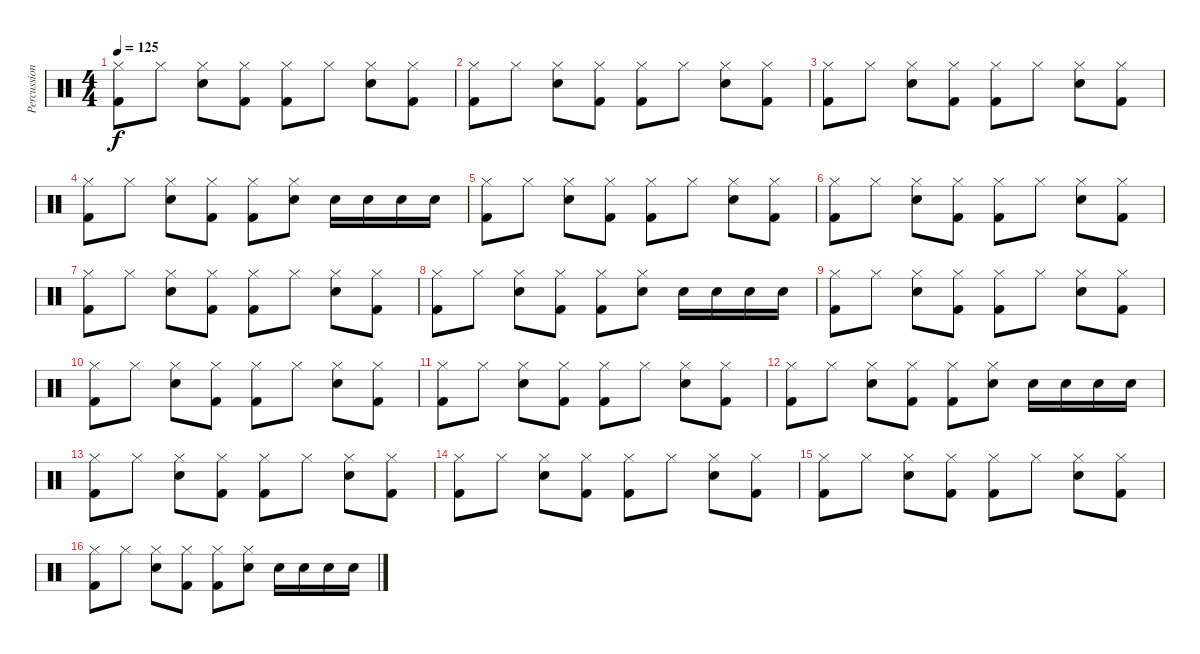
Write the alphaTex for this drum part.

\track ("Percussion" "Percussion") {instrument percussion}
\staff {score}
\articulation defaults
\ts (4 4)
\tempo 125
\clef neutral
\ks c
("Kick (hit) 2" "Hi-Hat (closed)").8{dy f} "Hi-Hat (closed)".8 ("Snare (hit) 2" "Hi-Hat (closed)").8 ("Kick (hit) 2" "Hi-Hat (closed)").8 ("Kick (hit) 2" "Hi-Hat (closed)").8 "Hi-Hat (closed)".8 ("Snare (hit) 2" "Hi-Hat (closed)").8 ("Kick (hit) 2" "Hi-Hat (closed)").8 |
("Kick (hit) 2" "Hi-Hat (closed)").8 "Hi-Hat (closed)".8 ("Snare (hit) 2" "Hi-Hat (closed)").8 ("Kick (hit) 2" "Hi-Hat (closed)").8 ("Kick (hit) 2" "Hi-Hat (closed)").8 "Hi-Hat (closed)".8 ("Snare (hit) 2" "Hi-Hat (closed)").8 ("Kick (hit) 2" "Hi-Hat (closed)").8 |
("Kick (hit) 2" "Hi-Hat (closed)").8 "Hi-Hat (closed)".8 ("Snare (hit) 2" "Hi-Hat (closed)").8 ("Kick (hit) 2" "Hi-Hat (closed)").8 ("Kick (hit) 2" "Hi-Hat (closed)").8 "Hi-Hat (closed)".8 ("Snare (hit) 2" "Hi-Hat (closed)").8 ("Kick (hit) 2" "Hi-Hat (closed)").8 |
("Kick (hit) 2" "Hi-Hat (closed)").8 "Hi-Hat (closed)".8 ("Snare (hit) 2" "Hi-Hat (closed)").8 ("Kick (hit) 2" "Hi-Hat (closed)").8 ("Kick (hit) 2" "Hi-Hat (closed)").8 ("Snare (hit) 2" "Hi-Hat (closed)").8 "Snare (hit) 2".16 "Snare (hit) 2".16 "Snare (hit) 2".16 "Snare (hit) 2".16 |
("Kick (hit) 2" "Hi-Hat (closed)").8 "Hi-Hat (closed)".8 ("Snare (hit) 2" "Hi-Hat (closed)").8 ("Kick (hit) 2" "Hi-Hat (closed)").8 ("Kick (hit) 2" "Hi-Hat (closed)").8 "Hi-Hat (closed)".8 ("Snare (hit) 2" "Hi-Hat (closed)").8 ("Kick (hit) 2" "Hi-Hat (closed)").8 |
("Kick (hit) 2" "Hi-Hat (closed)").8 "Hi-Hat (closed)".8 ("Snare (hit) 2" "Hi-Hat (closed)").8 ("Kick (hit) 2" "Hi-Hat (closed)").8 ("Kick (hit) 2" "Hi-Hat (closed)").8 "Hi-Hat (closed)".8 ("Snare (hit) 2" "Hi-Hat (closed)").8 ("Kick (hit) 2" "Hi-Hat (closed)").8 |
("Kick (hit) 2" "Hi-Hat (closed)").8 "Hi-Hat (closed)".8 ("Snare (hit) 2" "Hi-Hat (closed)").8 ("Kick (hit) 2" "Hi-Hat (closed)").8 ("Kick (hit) 2" "Hi-Hat (closed)").8 "Hi-Hat (closed)".8 ("Snare (hit) 2" "Hi-Hat (closed)").8 ("Kick (hit) 2" "Hi-Hat (closed)").8 |
("Kick (hit) 2" "Hi-Hat (closed)").8 "Hi-Hat (closed)".8 ("Snare (hit) 2" "Hi-Hat (closed)").8 ("Kick (hit) 2" "Hi-Hat (closed)").8 ("Kick (hit) 2" "Hi-Hat (closed)").8 ("Snare (hit) 2" "Hi-Hat (closed)").8 "Snare (hit) 2".16 "Snare (hit) 2".16 "Snare (hit) 2".16 "Snare (hit) 2".16 |
("Kick (hit) 2" "Hi-Hat (closed)").8{volume 7} "Hi-Hat (closed)".8 ("Snare (hit) 2" "Hi-Hat (closed)").8 ("Kick (hit) 2" "Hi-Hat (closed)").8 ("Kick (hit) 2" "Hi-Hat (closed)").8 "Hi-Hat (closed)".8 ("Snare (hit) 2" "Hi-Hat (closed)").8 ("Kick (hit) 2" "Hi-Hat (closed)").8 |
("Kick (hit) 2" "Hi-Hat (closed)").8 "Hi-Hat (closed)".8 ("Snare (hit) 2" "Hi-Hat (closed)").8 ("Kick (hit) 2" "Hi-Hat (closed)").8 ("Kick (hit) 2" "Hi-Hat (closed)").8 "Hi-Hat (closed)".8 ("Snare (hit) 2" "Hi-Hat (closed)").8 ("Kick (hit) 2" "Hi-Hat (closed)").8 |
("Kick (hit) 2" "Hi-Hat (closed)").8 "Hi-Hat (closed)".8 ("Snare (hit) 2" "Hi-Hat (closed)").8 ("Kick (hit) 2" "Hi-Hat (closed)").8 ("Kick (hit) 2" "Hi-Hat (closed)").8 "Hi-Hat (closed)".8 ("Snare (hit) 2" "Hi-Hat (closed)").8 ("Kick (hit) 2" "Hi-Hat (closed)").8 |
("Kick (hit) 2" "Hi-Hat (closed)").8 "Hi-Hat (closed)".8 ("Snare (hit) 2" "Hi-Hat (closed)").8 ("Kick (hit) 2" "Hi-Hat (closed)").8 ("Kick (hit) 2" "Hi-Hat (closed)").8 ("Snare (hit) 2" "Hi-Hat (closed)").8 "Snare (hit) 2".16 "Snare (hit) 2".16 "Snare (hit) 2".16 "Snare (hit) 2".16 |
("Kick (hit) 2" "Hi-Hat (closed)").8{volume 1} "Hi-Hat (closed)".8 ("Snare (hit) 2" "Hi-Hat (closed)").8 ("Kick (hit) 2" "Hi-Hat (closed)").8 ("Kick (hit) 2" "Hi-Hat (closed)").8 "Hi-Hat (closed)".8 ("Snare (hit) 2" "Hi-Hat (closed)").8 ("Kick (hit) 2" "Hi-Hat (closed)").8 |
("Kick (hit) 2" "Hi-Hat (closed)").8 "Hi-Hat (closed)".8 ("Snare (hit) 2" "Hi-Hat (closed)").8 ("Kick (hit) 2" "Hi-Hat (closed)").8 ("Kick (hit) 2" "Hi-Hat (closed)").8 "Hi-Hat (closed)".8 ("Snare (hit) 2" "Hi-Hat (closed)").8 ("Kick (hit) 2" "Hi-Hat (closed)").8 |
("Kick (hit) 2" "Hi-Hat (closed)").8 "Hi-Hat (closed)".8 ("Snare (hit) 2" "Hi-Hat (closed)").8 ("Kick (hit) 2" "Hi-Hat (closed)").8 ("Kick (hit) 2" "Hi-Hat (closed)").8 "Hi-Hat (closed)".8 ("Snare (hit) 2" "Hi-Hat (closed)").8 ("Kick (hit) 2" "Hi-Hat (closed)").8 |
("Kick (hit) 2" "Hi-Hat (closed)").8 "Hi-Hat (closed)".8 ("Snare (hit) 2" "Hi-Hat (closed)").8 ("Kick (hit) 2" "Hi-Hat (closed)").8 ("Kick (hit) 2" "Hi-Hat (closed)").8 ("Snare (hit) 2" "Hi-Hat (closed)").8 "Snare (hit) 2".16 "Snare (hit) 2".16 "Snare (hit) 2".16 "Snare (hit) 2".16
